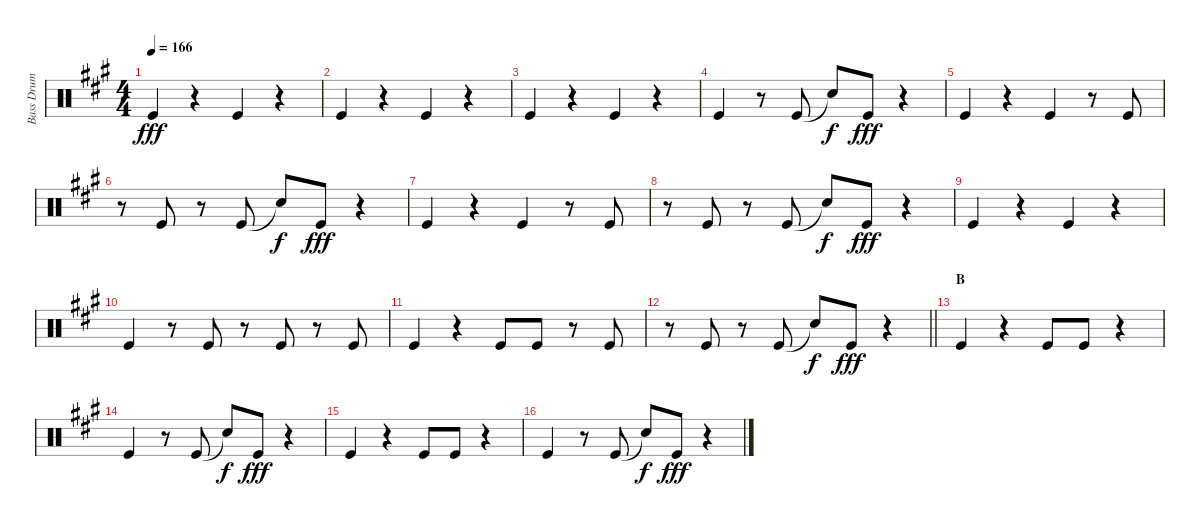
\track ("Bass Drum" "Bass Drum") {instrument percussion}
\staff {score}
\articulation defaults
\ts (4 4)
\tempo 166
\clef neutral
\ks a "Kick (hit)".4{dy fff}
r.4 "Kick (hit)".4 r.4 |
"Kick (hit)".4 r.4 "Kick (hit)".4 r.4 |
"Kick (hit)".4 r.4 "Kick (hit)".4 r.4 |
"Kick (hit)".4 r.8 "Kick (hit)".8 "Snare (hit)"{t}.8{dy f} "Kick (hit)".8{dy fff} r.4 |
"Kick (hit)".4 r.4 "Kick (hit)".4 r.8 "Kick (hit)".8 |
r.8 "Kick (hit)".8 r.8 "Kick (hit)".8 "Snare (hit)"{t}.8{dy f} "Kick (hit)".8{dy fff} r.4 |
"Kick (hit)".4 r.4 "Kick (hit)".4 r.8 "Kick (hit)".8 |
r.8 "Kick (hit)".8 r.8 "Kick (hit)".8 "Snare (hit)"{t}.8{dy f} "Kick (hit)".8{dy fff} r.4 |
"Kick (hit)".4 r.4 "Kick (hit)".4 r.4 |
"Kick (hit)".4 r.8 "Kick (hit)".8 r.8 "Kick (hit)".8 r.8 "Kick (hit)".8 |
"Kick (hit)".4 r.4 "Kick (hit)".8 "Kick (hit)".8 r.8 "Kick (hit)".8 |
\barLineRight lightlight
r.8 "Kick (hit)".8 r.8 "Kick (hit)".8 "Snare (hit)"{t}.8{dy f} "Kick (hit)".8{dy fff} r.4 |
\section ("" "B")
"Kick (hit)".4 r.4 "Kick (hit)".8 "Kick (hit)".8 r.4 |
"Kick (hit)".4 r.8 "Kick (hit)".8 "Snare (hit)"{t}.8{dy f} "Kick (hit)".8{dy fff} r.4 |
"Kick (hit)".4 r.4 "Kick (hit)".8 "Kick (hit)".8 r.4 |
"Kick (hit)".4 r.8 "Kick (hit)".8 "Snare (hit)"{t}.8{dy f} "Kick (hit)".8{dy fff} r.4
